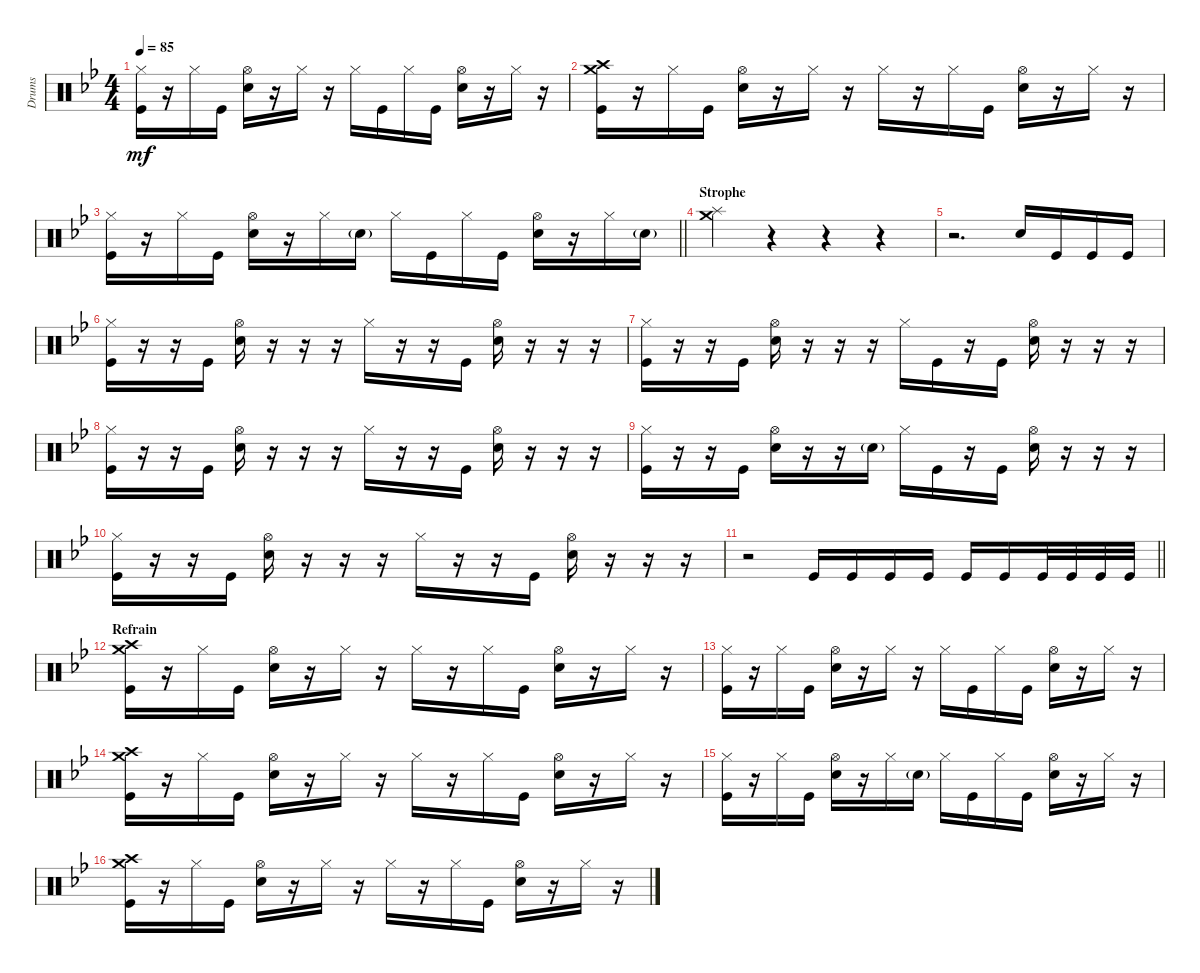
\track ("Drums" "Drums") {instrument percussion}
\staff {score}
\articulation defaults
\ts (4 4)
\tempo 85
\clef neutral
\ks gminor
("Kick (hit)" "Hi-Hat (closed)").16{dy mf} r.16 "Hi-Hat (closed)".16 "Kick (hit)".16 ("Snare (hit) 2" "Hi-Hat (open)").16 r.16 "Hi-Hat (closed)".16 r.16 "Hi-Hat (closed)".16 "Kick (hit)".16 "Hi-Hat (closed)".16 "Kick (hit)".16 ("Snare (hit) 2" "Hi-Hat (open)").16 r.16 "Hi-Hat (closed)".16 r.16 |
("Kick (hit)" "Crash high (hit)" "Crash medium (hit)").16 r.16 "Hi-Hat (closed)".16 "Kick (hit)".16 ("Snare (hit) 2" "Hi-Hat (open)").16 r.16 "Hi-Hat (closed)".16 r.16 "Hi-Hat (closed)".16 r.16 "Hi-Hat (closed)".16 "Kick (hit)".16 ("Snare (hit) 2" "Hi-Hat (open)").16 r.16 "Hi-Hat (closed)".16 r.16 |
\barLineRight lightlight
("Kick (hit)" "Hi-Hat (closed)").16 r.16 "Hi-Hat (closed)".16 "Kick (hit)".16 ("Snare (hit) 2" "Hi-Hat (open)").16 r.16 "Hi-Hat (closed)".16 "Snare (hit) 2"{g}.16 "Hi-Hat (closed)".16 "Kick (hit)".16 "Hi-Hat (closed)".16 "Kick (hit)".16 ("Snare (hit) 2" "Hi-Hat (open)").16 r.16 "Hi-Hat (closed)".16 "Snare (hit) 2"{g}.16 |
\section ("" "Strophe")
("Crash medium (hit)" "Splash (hit)").4 r.4 r.4 r.4 |
r.2{d} "Snare (hit) 2".16 "Kick (hit)".16 "Kick (hit)".16 "Kick (hit)".16 |
("Kick (hit)" "Hi-Hat (closed)").16 r.16 r.16 "Kick (hit)".16 ("Snare (hit) 2" "Hi-Hat (open)").16 r.16 r.16 r.16 "Hi-Hat (closed)".16 r.16 r.16 "Kick (hit)".16 ("Snare (hit) 2" "Hi-Hat (open)").16 r.16 r.16 r.16 |
("Kick (hit)" "Hi-Hat (closed)").16 r.16 r.16 "Kick (hit)".16 ("Snare (hit) 2" "Hi-Hat (open)").16 r.16 r.16 r.16 "Hi-Hat (closed)".16 "Kick (hit)".16 r.16 "Kick (hit)".16 ("Snare (hit) 2" "Hi-Hat (open)").16 r.16 r.16 r.16 |
("Kick (hit)" "Hi-Hat (closed)").16 r.16 r.16 "Kick (hit)".16 ("Snare (hit) 2" "Hi-Hat (open)").16 r.16 r.16 r.16 "Hi-Hat (closed)".16 r.16 r.16 "Kick (hit)".16 ("Snare (hit) 2" "Hi-Hat (open)").16 r.16 r.16 r.16 |
("Kick (hit)" "Hi-Hat (closed)").16 r.16 r.16 "Kick (hit)".16 ("Snare (hit) 2" "Hi-Hat (open)").16 r.16 r.16 "Snare (hit) 2"{g}.16 "Hi-Hat (closed)".16 "Kick (hit)".16 r.16 "Kick (hit)".16 ("Snare (hit) 2" "Hi-Hat (open)").16 r.16 r.16 r.16 |
("Kick (hit)" "Hi-Hat (closed)").16 r.16 r.16 "Kick (hit)".16 ("Snare (hit) 2" "Hi-Hat (open)").16 r.16 r.16 r.16 "Hi-Hat (closed)".16 r.16 r.16 "Kick (hit)".16 ("Snare (hit) 2" "Hi-Hat (open)").16 r.16 r.16 r.16 |
\barLineRight lightlight
r.2 "Kick (hit)".16 "Kick (hit)".16 "Kick (hit)".16 "Kick (hit)".16 "Kick (hit)".16 "Kick (hit)".16 "Kick (hit)".32 "Kick (hit)".32 "Kick (hit)".32 "Kick (hit)".32 |
\section ("" "Refrain")
("Kick (hit)" "Crash medium (hit)" "Crash high (hit)").16 r.16 "Hi-Hat (closed)".16 "Kick (hit)".16 ("Snare (hit) 2" "Hi-Hat (open)").16 r.16 "Hi-Hat (closed)".16 r.16 "Hi-Hat (closed)".16 r.16 "Hi-Hat (closed)".16 "Kick (hit)".16 ("Snare (hit) 2" "Hi-Hat (open)").16 r.16 "Hi-Hat (closed)".16 r.16 |
("Kick (hit)" "Hi-Hat (closed)").16 r.16 "Hi-Hat (closed)".16 "Kick (hit)".16 ("Snare (hit) 2" "Hi-Hat (open)").16 r.16 "Hi-Hat (closed)".16 r.16 "Hi-Hat (closed)".16 "Kick (hit)".16 "Hi-Hat (closed)".16 "Kick (hit)".16 ("Snare (hit) 2" "Hi-Hat (open)").16 r.16 "Hi-Hat (closed)".16 r.16 |
("Kick (hit)" "Crash high (hit)" "Crash medium (hit)").16 r.16 "Hi-Hat (closed)".16 "Kick (hit)".16 ("Snare (hit) 2" "Hi-Hat (open)").16 r.16 "Hi-Hat (closed)".16 r.16 "Hi-Hat (closed)".16 r.16 "Hi-Hat (closed)".16 "Kick (hit)".16 ("Snare (hit) 2" "Hi-Hat (open)").16 r.16 "Hi-Hat (closed)".16 r.16 |
("Kick (hit)" "Hi-Hat (closed)").16 r.16 "Hi-Hat (closed)".16 "Kick (hit)".16 ("Snare (hit) 2" "Hi-Hat (open)").16 r.16 "Hi-Hat (closed)".16 "Snare (hit) 2"{g}.16 "Hi-Hat (closed)".16 "Kick (hit)".16 "Hi-Hat (closed)".16 "Kick (hit)".16 ("Snare (hit) 2" "Hi-Hat (open)").16 r.16 "Hi-Hat (closed)".16 r.16 |
("Kick (hit)" "Crash medium (hit)" "Crash high (hit)").16 r.16 "Hi-Hat (closed)".16 "Kick (hit)".16 ("Snare (hit) 2" "Hi-Hat (open)").16 r.16 "Hi-Hat (closed)".16 r.16 "Hi-Hat (closed)".16 r.16 "Hi-Hat (closed)".16 "Kick (hit)".16 ("Snare (hit) 2" "Hi-Hat (open)").16 r.16 "Hi-Hat (closed)".16 r.16
